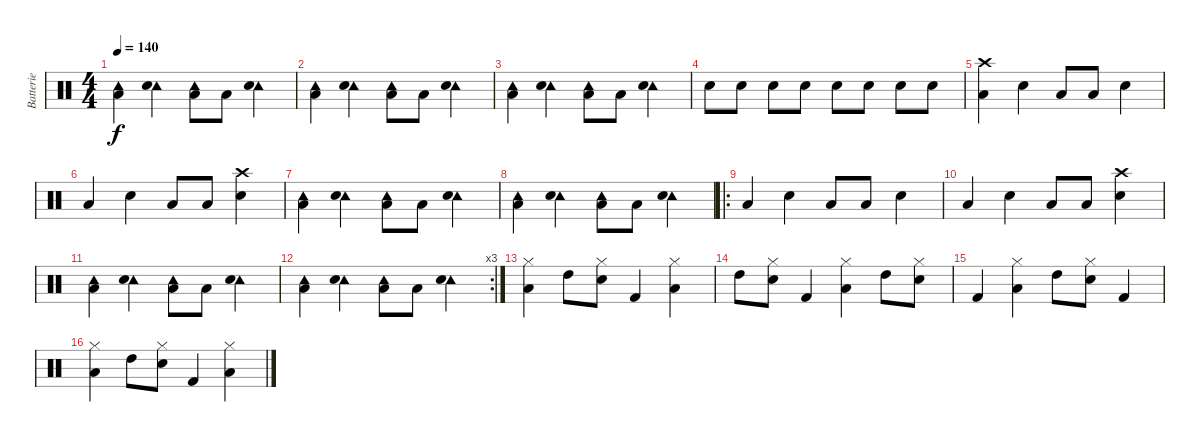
\track ("Batterie" "Batterie") {instrument percussion}
\staff {score}
\articulation defaults
\ts (4 4)
\tempo 140
\clef neutral
\ks c
("Tambourine (hit)" "Low Floor Tom (hit)").4{dy f} ("Tambourine (hit)" "Electric Snare (hit)").4 ("Tambourine (hit)" "Low Floor Tom (hit)").8 "Low Floor Tom (hit)".8 ("Tambourine (hit)" "Electric Snare (hit)").4 |
("Tambourine (hit)" "Low Floor Tom (hit)").4 ("Tambourine (hit)" "Electric Snare (hit)").4 ("Tambourine (hit)" "Low Floor Tom (hit)").8 "Low Floor Tom (hit)".8 ("Tambourine (hit)" "Electric Snare (hit)").4 |
("Tambourine (hit)" "Low Floor Tom (hit)").4 ("Tambourine (hit)" "Electric Snare (hit)").4 ("Tambourine (hit)" "Low Floor Tom (hit)").8 "Low Floor Tom (hit)".8 ("Tambourine (hit)" "Electric Snare (hit)").4 |
"Electric Snare (hit)".8 "Electric Snare (hit)".8 "Electric Snare (hit)".8 "Electric Snare (hit)".8 "Electric Snare (hit)".8 "Electric Snare (hit)".8 "Electric Snare (hit)".8 "Electric Snare (hit)".8 |
("Crash high (hit)" "Low Floor Tom (hit)").4 "Electric Snare (hit)".4 "Low Floor Tom (hit)".8 "Low Floor Tom (hit)".8 "Electric Snare (hit)".4 |
"Low Floor Tom (hit)".4 "Electric Snare (hit)".4 "Low Floor Tom (hit)".8 "Low Floor Tom (hit)".8 ("Crash high (hit)" "Electric Snare (hit)").4 |
("Tambourine (hit)" "Low Floor Tom (hit)").4 ("Tambourine (hit)" "Electric Snare (hit)").4 ("Tambourine (hit)" "Low Floor Tom (hit)").8 "Low Floor Tom (hit)".8 ("Tambourine (hit)" "Electric Snare (hit)").4 |
("Tambourine (hit)" "Low Floor Tom (hit)").4 ("Tambourine (hit)" "Electric Snare (hit)").4 ("Tambourine (hit)" "Low Floor Tom (hit)").8 "Low Floor Tom (hit)".8 ("Tambourine (hit)" "Electric Snare (hit)").4 |
\ro "Low Floor Tom (hit)".4 "Electric Snare (hit)".4 "Low Floor Tom (hit)".8 "Low Floor Tom (hit)".8 "Electric Snare (hit)".4
|
"Low Floor Tom (hit)".4 "Electric Snare (hit)".4 "Low Floor Tom (hit)".8 "Low Floor Tom (hit)".8 ("Crash high (hit)" "Electric Snare (hit)").4 |
("Tambourine (hit)" "Low Floor Tom (hit)").4 ("Tambourine (hit)" "Electric Snare (hit)").4 ("Tambourine (hit)" "Low Floor Tom (hit)").8 "Low Floor Tom (hit)".8 ("Tambourine (hit)" "Electric Snare (hit)").4 |
\rc 3
("Tambourine (hit)" "Low Floor Tom (hit)").4 ("Tambourine (hit)" "Electric Snare (hit)").4 ("Tambourine (hit)" "Low Floor Tom (hit)").8 "Low Floor Tom (hit)".8 ("Tambourine (hit)" "Electric Snare (hit)").4 |
("Hi-Hat (closed)" "Low Floor Tom (hit)").4 "High Tom (hit)".8 ("Hi-Hat (closed)" "Snare (hit) 2").8 "Kick (hit) 2".4 ("Hi-Hat (closed)" "Low Floor Tom (hit)").4 |
"High Tom (hit)".8 ("Hi-Hat (closed)" "Snare (hit) 2").8 "Kick (hit) 2".4 ("Hi-Hat (closed)" "Low Floor Tom (hit)").4 "High Tom (hit)".8 ("Hi-Hat (closed)" "Snare (hit) 2").8 |
"Kick (hit) 2".4 ("Hi-Hat (closed)" "Low Floor Tom (hit)").4 "High Tom (hit)".8 ("Hi-Hat (closed)" "Snare (hit) 2").8 "Kick (hit) 2".4 |
("Hi-Hat (closed)" "Low Floor Tom (hit)").4 "High Tom (hit)".8 ("Hi-Hat (closed)" "Snare (hit) 2").8 "Kick (hit) 2".4 ("Hi-Hat (closed)" "Low Floor Tom (hit)").4
